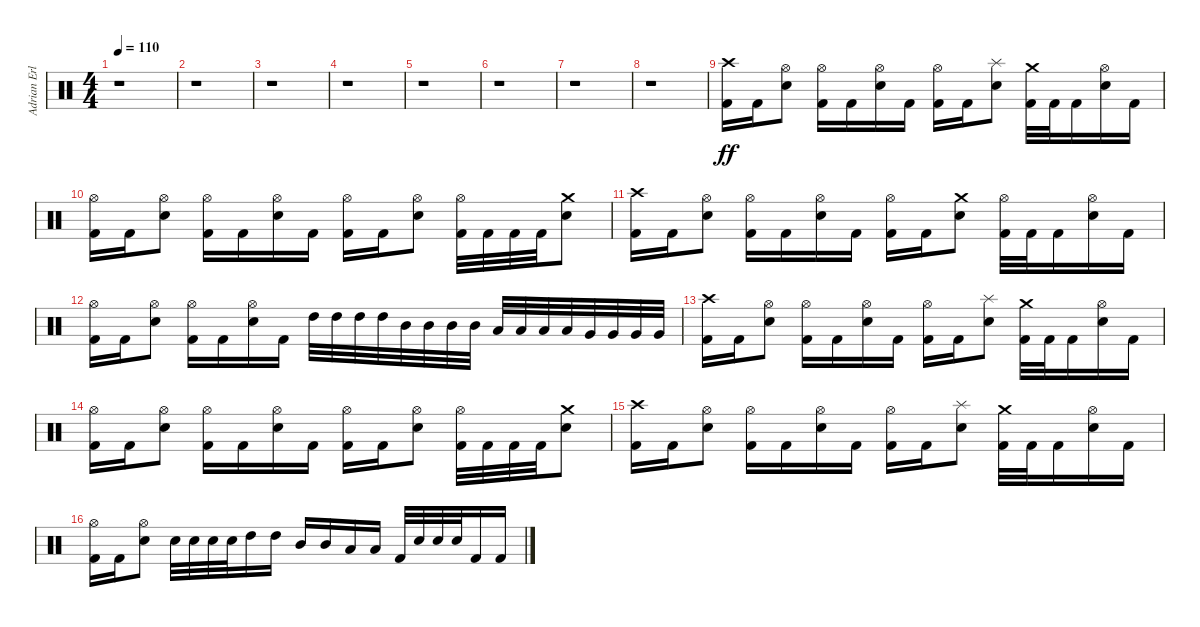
\track ("Adrian Erlandsson" "Adrian Erl") {instrument percussion}
\staff {score}
\articulation defaults
\ts (4 4)
\tempo 110
\clef neutral
\ks c
r.1{dy ff} |
r.1 |
r.1 |
r.1 |
r.1 |
r.1 |
r.1 |
r.1 |
("Kick (hit) 2" "Crash high (hit)").16 "Kick (hit) 2".16 ("Electric Snare (hit)" "Hi-Hat (open)").8 ("Kick (hit) 2" "Hi-Hat (open)").16 "Kick (hit) 2".16 ("Electric Snare (hit)" "Hi-Hat (open)").16 "Kick (hit) 2".16 ("Kick (hit) 2" "Hi-Hat (open)").16 "Kick (hit) 2".16 ("Electric Snare (hit)" "Splash (hit)").8 ("Kick (hit) 2" "Crash medium (hit)").32 "Kick (hit) 2".32 "Kick (hit) 2".16 ("Electric Snare (hit)" "Hi-Hat (open)").16 "Kick (hit) 2".16 |
("Kick (hit) 2" "Hi-Hat (open)").16 "Kick (hit) 2".16 ("Electric Snare (hit)" "Hi-Hat (open)").8 ("Kick (hit) 2" "Hi-Hat (open)").16 "Kick (hit) 2".16 ("Electric Snare (hit)" "Hi-Hat (open)").16 "Kick (hit) 2".16 ("Kick (hit) 2" "Hi-Hat (open)").16 "Kick (hit) 2".16 ("Electric Snare (hit)" "Hi-Hat (open)").8 ("Kick (hit) 2" "Hi-Hat (open)").32 "Kick (hit) 2".32 "Kick (hit) 2".32 "Kick (hit) 2".32 ("Electric Snare (hit)" "Crash medium (hit)").8 |
("Kick (hit) 2" "Crash high (hit)").16 "Kick (hit) 2".16 ("Electric Snare (hit)" "Hi-Hat (open)").8 ("Kick (hit) 2" "Hi-Hat (open)").16 "Kick (hit) 2".16 ("Electric Snare (hit)" "Hi-Hat (open)").16 "Kick (hit) 2".16 ("Kick (hit) 2" "Hi-Hat (open)").16 "Kick (hit) 2".16 ("Electric Snare (hit)" "Crash medium (hit)").8 ("Kick (hit) 2" "Hi-Hat (open)").32 "Kick (hit) 2".32 "Kick (hit) 2".16 ("Electric Snare (hit)" "Hi-Hat (open)").16 "Kick (hit) 2".16 |
("Kick (hit) 2" "Hi-Hat (open)").16 "Kick (hit) 2".16 ("Electric Snare (hit)" "Hi-Hat (open)").8 ("Kick (hit) 2" "Hi-Hat (open)").16 "Kick (hit) 2".16 ("Electric Snare (hit)" "Hi-Hat (open)").16 "Kick (hit) 2".16 "High Tom (hit)".32 "High Tom (hit)".32 "High Tom (hit)".32 "High Tom (hit)".32 "Mid Tom (hit)".32 "Mid Tom (hit)".32 "Mid Tom (hit)".32 "Mid Tom (hit)".32 "Low Tom (hit)".32 "Low Tom (hit)".32 "Low Tom (hit)".32 "Low Tom (hit)".32 "Very Low Tom (hit)".32 "Very Low Tom (hit)".32 "Very Low Tom (hit)".32 "Very Low Tom (hit)".32 |
("Kick (hit) 2" "Crash high (hit)").16 "Kick (hit) 2".16 ("Electric Snare (hit)" "Hi-Hat (open)").8 ("Kick (hit) 2" "Hi-Hat (open)").16 "Kick (hit) 2".16 ("Electric Snare (hit)" "Hi-Hat (open)").16 "Kick (hit) 2".16 ("Kick (hit) 2" "Hi-Hat (open)").16 "Kick (hit) 2".16 ("Electric Snare (hit)" "Splash (hit)").8 ("Kick (hit) 2" "Crash medium (hit)").32 "Kick (hit) 2".32 "Kick (hit) 2".16 ("Electric Snare (hit)" "Hi-Hat (open)").16 "Kick (hit) 2".16 |
("Kick (hit) 2" "Hi-Hat (open)").16 "Kick (hit) 2".16 ("Electric Snare (hit)" "Hi-Hat (open)").8 ("Kick (hit) 2" "Hi-Hat (open)").16 "Kick (hit) 2".16 ("Electric Snare (hit)" "Hi-Hat (open)").16 "Kick (hit) 2".16 ("Kick (hit) 2" "Hi-Hat (open)").16 "Kick (hit) 2".16 ("Electric Snare (hit)" "Hi-Hat (open)").8 ("Kick (hit) 2" "Hi-Hat (open)").32 "Kick (hit) 2".32 "Kick (hit) 2".32 "Kick (hit) 2".32 ("Electric Snare (hit)" "Crash medium (hit)").8 |
("Kick (hit) 2" "Crash high (hit)").16 "Kick (hit) 2".16 ("Electric Snare (hit)" "Hi-Hat (open)").8 ("Kick (hit) 2" "Hi-Hat (open)").16 "Kick (hit) 2".16 ("Electric Snare (hit)" "Hi-Hat (open)").16 "Kick (hit) 2".16 ("Kick (hit) 2" "Hi-Hat (open)").16 "Kick (hit) 2".16 ("Electric Snare (hit)" "Splash (hit)").8 ("Kick (hit) 2" "Crash medium (hit)").32 "Kick (hit) 2".32 "Kick (hit) 2".16 ("Electric Snare (hit)" "Hi-Hat (open)").16 "Kick (hit) 2".16 |
("Kick (hit) 2" "Hi-Hat (open)").16 "Kick (hit) 2".16 ("Electric Snare (hit)" "Hi-Hat (open)").8 "Electric Snare (hit)".32 "Electric Snare (hit)".32 "Electric Snare (hit)".32 "Electric Snare (hit)".32 "High Tom (hit)".16 "High Tom (hit)".16 "Mid Tom (hit)".16 "Mid Tom (hit)".16 "Low Tom (hit)".16 "Low Tom (hit)".16 "Kick (hit) 2".32 "Electric Snare (hit)".32 "Electric Snare (hit)".32 "Electric Snare (hit)".32 "Kick (hit) 2".16 "Kick (hit) 2".16
